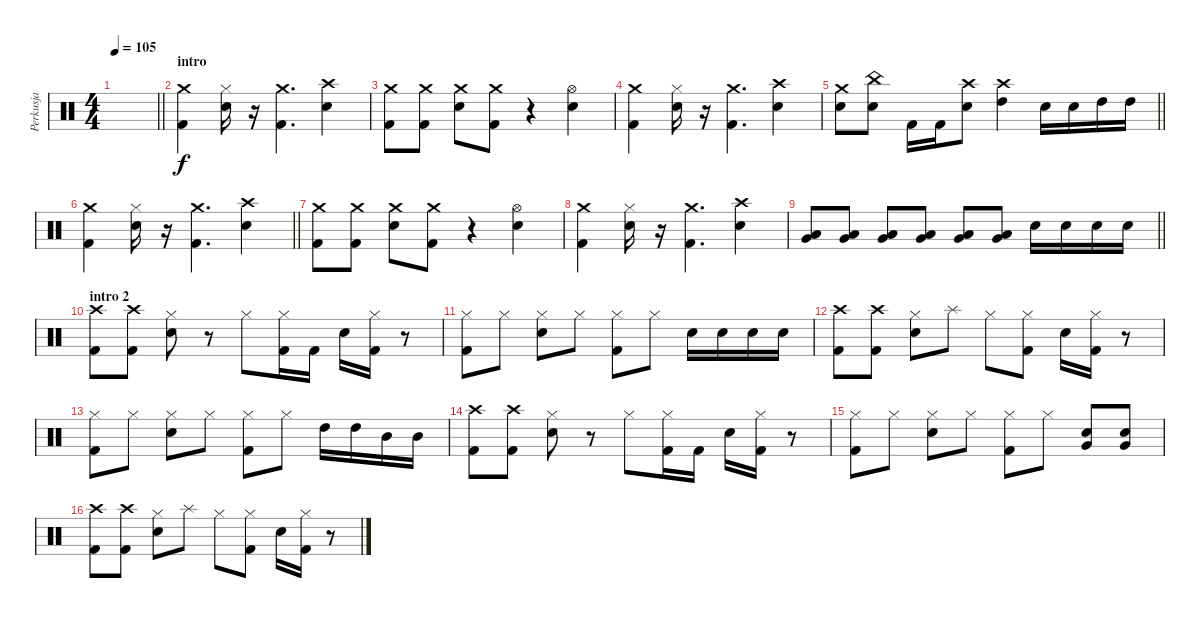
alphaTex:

\track ("Perkusja" "Perkusja") {instrument percussion}
\staff {score}
\articulation defaults
\ts (4 4)
\tempo 105
\clef neutral
\barLineRight lightlight
\ks c
|
\section ("" "intro")
("Kick (hit) 2" "Crash medium (hit)").4 ("Snare (hit) 2" "Hi-Hat (closed)").16 r.16 ("Kick (hit) 2" "Crash medium (hit)").4{d} ("Snare (hit) 2" "Crash high (hit)").4 |
("Crash medium (hit)" "Kick (hit) 2").8 ("Crash medium (hit)" "Kick (hit) 2").8 ("Crash medium (hit)" "Snare (hit) 2").8 ("Crash medium (hit)" "Kick (hit) 2").8 r.4 ("Snare (hit) 2" "Hi-Hat (open)").4 |
("Kick (hit) 2" "Crash medium (hit)").4 ("Snare (hit) 2" "Hi-Hat (closed)").16 r.16 ("Kick (hit) 2" "Crash medium (hit)").4{d} ("Snare (hit) 2" "Crash high (hit)").4 |
\barLineRight lightlight
("Crash medium (hit)" "Snare (hit) 2").8 ("China (hit)" "Snare (hit) 2").8 "Kick (hit) 2".16 "Kick (hit) 2".16 ("Crash high (hit)" "Snare (hit) 2").8 ("Crash high (hit)" "High Tom (hit)").4 "Snare (hit) 2".16 "Snare (hit) 2".16 "High Tom (hit)".16 "High Tom (hit)".16 |
\barLineRight lightlight
("Kick (hit) 2" "Crash medium (hit)").4 ("Snare (hit) 2" "Hi-Hat (closed)").16 r.16 ("Kick (hit) 2" "Crash medium (hit)").4{d} ("Snare (hit) 2" "Crash high (hit)").4 |
("Crash medium (hit)" "Kick (hit) 2").8 ("Crash medium (hit)" "Kick (hit) 2").8 ("Crash medium (hit)" "Snare (hit) 2").8 ("Crash medium (hit)" "Kick (hit) 2").8 r.4 ("Snare (hit) 2" "Hi-Hat (open)").4 |
("Kick (hit) 2" "Crash medium (hit)").4 ("Snare (hit) 2" "Hi-Hat (closed)").16 r.16 ("Kick (hit) 2" "Crash medium (hit)").4{d} ("Snare (hit) 2" "Crash high (hit)").4 |
\barLineRight lightlight
("Very Low Tom (hit)" "Low Floor Tom (hit)").8 ("Very Low Tom (hit)" "Low Floor Tom (hit)").8 ("Very Low Tom (hit)" "Low Floor Tom (hit)").8 ("Very Low Tom (hit)" "Low Floor Tom (hit)").8 ("Very Low Tom (hit)" "Low Floor Tom (hit)").8 ("Very Low Tom (hit)" "Low Floor Tom (hit)").8 "Snare (hit) 2".16 "Snare (hit) 2".16 "Snare (hit) 2".16 "Snare (hit) 2".16 |
\section ("" "intro 2")
("Kick (hit) 2" "Crash high (hit)").8 ("Kick (hit) 2" "Crash high (hit)").8 ("Hi-Hat (closed)" "Snare (hit) 2").8 r.8 "Hi-Hat (closed)".8 ("Kick (hit) 2" "Hi-Hat (closed)").16 "Kick (hit) 2".16 "Snare (hit) 2".16 ("Hi-Hat (closed)" "Kick (hit) 2").16 r.8 |
("Hi-Hat (closed)" "Kick (hit) 2").8 "Hi-Hat (closed)".8 ("Hi-Hat (closed)" "Snare (hit) 2").8 "Hi-Hat (closed)".8 ("Hi-Hat (closed)" "Kick (hit) 2").8 "Hi-Hat (closed)".8 "Snare (hit) 2".16 "Snare (hit) 2".16 "Snare (hit) 2".16 "Snare (hit) 2".16 |
("Kick (hit) 2" "Crash high (hit)").8 ("Kick (hit) 2" "Crash high (hit)").8 ("Hi-Hat (closed)" "Snare (hit) 2").8 "Splash (hit)".8 "Hi-Hat (closed)".8 ("Kick (hit) 2" "Hi-Hat (closed)").8 "Snare (hit) 2".16 ("Hi-Hat (closed)" "Kick (hit) 2").16 r.8 |
("Hi-Hat (closed)" "Kick (hit) 2").8 "Hi-Hat (closed)".8 ("Hi-Hat (closed)" "Snare (hit) 2").8 "Hi-Hat (closed)".8 ("Hi-Hat (closed)" "Kick (hit) 2").8 "Hi-Hat (closed)".8 "High Tom (hit)".16 "High Tom (hit)".16 "Mid Tom (hit)".16 "Mid Tom (hit)".16 |
("Kick (hit) 2" "Crash high (hit)").8 ("Kick (hit) 2" "Crash high (hit)").8 ("Hi-Hat (closed)" "Snare (hit) 2").8 r.8 "Hi-Hat (closed)".8 ("Kick (hit) 2" "Hi-Hat (closed)").16 "Kick (hit) 2".16 "Snare (hit) 2".16 ("Hi-Hat (closed)" "Kick (hit) 2").16 r.8 |
("Hi-Hat (closed)" "Kick (hit) 2").8 "Hi-Hat (closed)".8 ("Hi-Hat (closed)" "Snare (hit) 2").8 "Hi-Hat (closed)".8 ("Hi-Hat (closed)" "Kick (hit) 2").8 "Hi-Hat (closed)".8 ("Snare (hit) 2" "Very Low Tom (hit)").8 ("Snare (hit) 2" "Very Low Tom (hit)").8 |
("Kick (hit) 2" "Crash high (hit)").8 ("Kick (hit) 2" "Crash high (hit)").8 ("Hi-Hat (closed)" "Snare (hit) 2").8 "Splash (hit)".8 "Hi-Hat (closed)".8 ("Kick (hit) 2" "Hi-Hat (closed)").8 "Snare (hit) 2".16 ("Hi-Hat (closed)" "Kick (hit) 2").16 r.8
